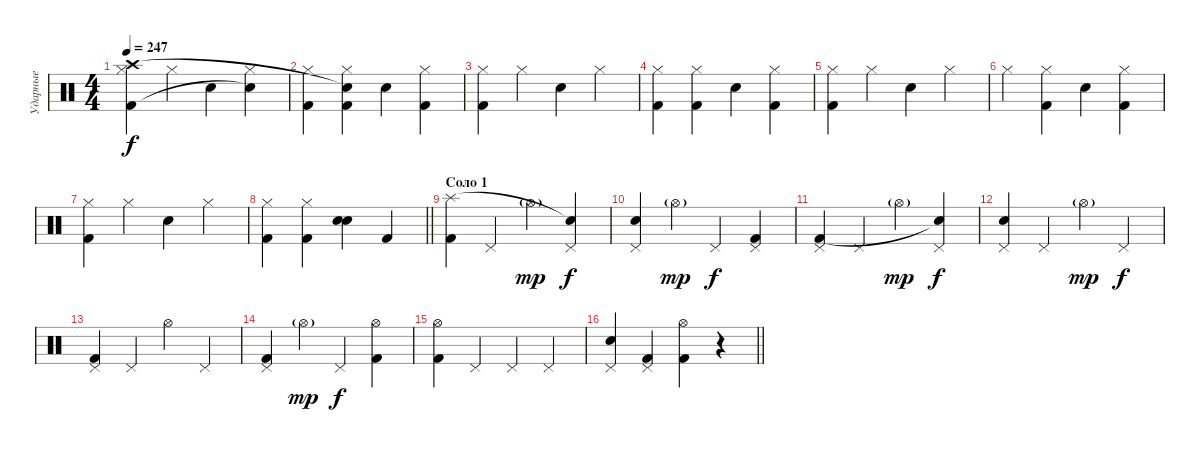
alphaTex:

\track ("Ударные" "Ударные") {instrument percussion}
\staff {score}
\articulation defaults
\ts (4 4)
\tempo 247
\clef neutral
\ks c
("Hi-Hat (closed)" "Kick (hit) 2" "Crash high (hit)").4{dy f} "Hi-Hat (closed)".4 "Snare (hit) 2".4 ("Hi-Hat (closed)" "Snare (hit)"{t}).4 |
("Hi-Hat (closed)" "Kick (hit) 2").4 ("Hi-Hat (closed)" "Kick (hit) 2" "Snare (hit)"{t}).4 "Snare (hit) 2".4 ("Hi-Hat (closed)" "Kick (hit) 2").4 |
("Hi-Hat (closed)" "Kick (hit) 2").4 "Hi-Hat (closed)".4 "Snare (hit) 2".4 "Hi-Hat (closed)".4 |
("Hi-Hat (closed)" "Kick (hit) 2").4 ("Hi-Hat (closed)" "Kick (hit) 2").4 "Snare (hit) 2".4 ("Hi-Hat (closed)" "Kick (hit) 2").4 |
("Hi-Hat (closed)" "Kick (hit) 2").4 "Hi-Hat (closed)".4 "Snare (hit) 2".4 "Hi-Hat (closed)".4 |
"Hi-Hat (closed)".4 ("Hi-Hat (closed)" "Kick (hit) 2").4 "Snare (hit) 2".4 ("Hi-Hat (closed)" "Kick (hit) 2").4 |
("Hi-Hat (closed)" "Kick (hit) 2").4 "Hi-Hat (closed)".4 "Snare (hit) 2".4 "Hi-Hat (closed)".4 |
\barLineRight lightlight
("Hi-Hat (closed)" "Kick (hit) 2").4 ("Hi-Hat (closed)" "Kick (hit) 2").4 ("Snare (hit) 2" "Electric Snare (hit)").4 "Kick (hit) 2".4 |
\section ("" "Соло 1")
("Kick (hit) 2" "Splash (hit)").4 "Pedal Hi-Hat (hit)".4 "Hi-Hat (open)"{g}.4{dy mp} ("Pedal Hi-Hat (hit)" "Snare (hit)"{t}).4{dy f} |
("Pedal Hi-Hat (hit)" "Electric Snare (hit)").4 "Hi-Hat (open)"{g}.4{dy mp} "Pedal Hi-Hat (hit)".4{dy f} ("Kick (hit) 2" "Pedal Hi-Hat (hit)").4 |
("Pedal Hi-Hat (hit)" "Kick (hit) 2").4 "Pedal Hi-Hat (hit)".4 "Hi-Hat (open)"{g}.4{dy mp} ("Pedal Hi-Hat (hit)" "Snare (hit)"{t}).4{dy f} |
("Pedal Hi-Hat (hit)" "Electric Snare (hit)").4 "Pedal Hi-Hat (hit)".4 "Hi-Hat (open)"{g}.4{dy mp} "Pedal Hi-Hat (hit)".4{dy f} |
("Kick (hit) 2" "Pedal Hi-Hat (hit)").4 "Pedal Hi-Hat (hit)".4 "Hi-Hat (open)".4 "Pedal Hi-Hat (hit)".4 |
("Pedal Hi-Hat (hit)" "Kick (hit) 2").4 "Hi-Hat (open)"{g}.4{dy mp} "Pedal Hi-Hat (hit)".4{dy f} ("Kick (hit) 2" "Hi-Hat (open)").4 |
("Kick (hit) 2" "Hi-Hat (open)").4 "Pedal Hi-Hat (hit)".4 "Pedal Hi-Hat (hit)".4 "Pedal Hi-Hat (hit)".4 |
\barLineRight lightlight
("Electric Snare (hit)" "Pedal Hi-Hat (hit)").4 ("Kick (hit) 2" "Pedal Hi-Hat (hit)").4 ("Kick (hit) 2" "Hi-Hat (open)").4 r.4
